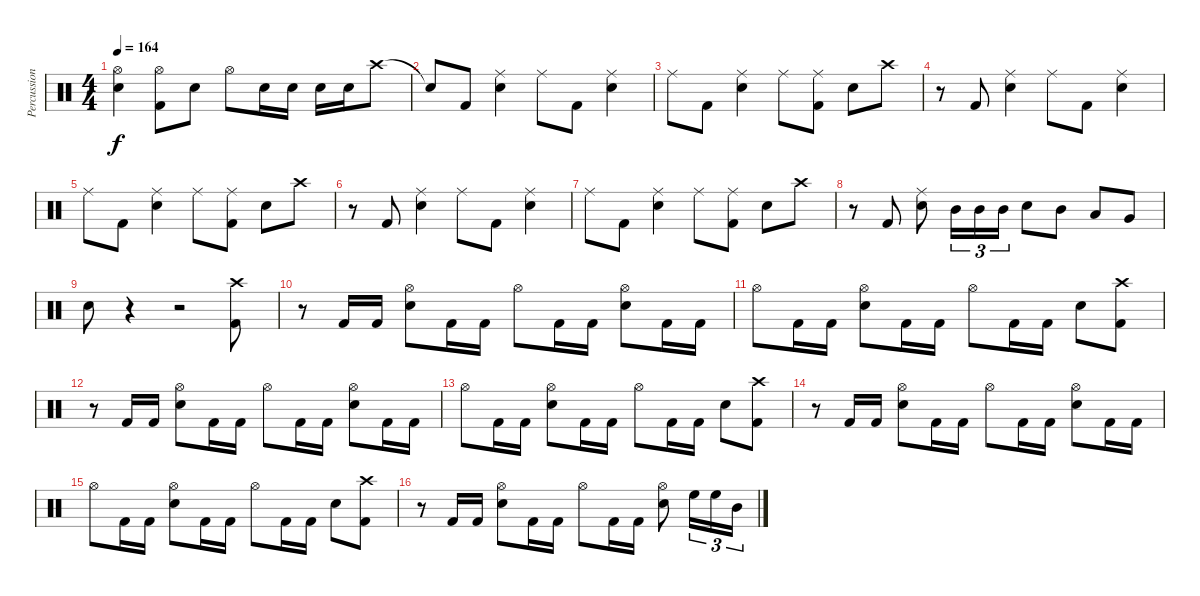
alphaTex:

\track ("Percussion" "Percussion") {instrument percussion}
\staff {score}
\articulation defaults
\ts (4 4)
\tempo 164
\clef neutral
\ks c
("Hi-Hat (open)" "Snare (hit) 2").4{dy f} ("Hi-Hat (open)" "Kick (hit) 2").8 "Snare (hit) 2".8 "Hi-Hat (open)".8 "Snare (hit) 2".16 "Snare (hit) 2".16 "Snare (hit) 2".16 "Snare (hit) 2".16 "Crash high (hit)".8 |
"Snare (hit)"{t}.8 "Kick (hit) 2".8 ("Ride (middle)" "Snare (hit) 2").4 "Ride (middle)".8 "Kick (hit) 2".8 ("Ride (middle)" "Snare (hit) 2").4 |
"Ride (middle)".8 "Kick (hit) 2".8 ("Ride (middle)" "Snare (hit) 2").4 "Ride (middle)".8 ("Ride (middle)" "Kick (hit) 2").8 "Snare (hit) 2".8 "Crash high (hit)".8 |
r.8 "Kick (hit) 2".8 ("Ride (middle)" "Snare (hit) 2").4 "Ride (middle)".8 "Kick (hit) 2".8 ("Ride (middle)" "Snare (hit) 2").4 |
"Ride (middle)".8 "Kick (hit) 2".8 ("Ride (middle)" "Snare (hit) 2").4 "Ride (middle)".8 ("Ride (middle)" "Kick (hit) 2").8 "Snare (hit) 2".8 "Crash high (hit)".8 |
r.8 "Kick (hit) 2".8 ("Ride (middle)" "Snare (hit) 2").4 "Ride (middle)".8 "Kick (hit) 2".8 ("Ride (middle)" "Snare (hit) 2").4 |
"Ride (middle)".8 "Kick (hit) 2".8 ("Ride (middle)" "Snare (hit) 2").4 "Ride (middle)".8 ("Ride (middle)" "Kick (hit) 2").8 "Snare (hit) 2".8 "Crash high (hit)".8 |
r.8 "Kick (hit) 2".8 ("Ride (middle)" "Snare (hit) 2").8 "Mid Tom (hit)".16{tu (3 2)} "Mid Tom (hit)".16{tu (3 2)} "Mid Tom (hit)".16{tu (3 2)} "Snare (hit) 2".8 "Mid Tom (hit)".8 "Low Tom (hit)".8 "Very Low Tom (hit)".8 |
"Snare (hit) 2".8 r.4 r.2 ("Crash high (hit)" "Kick (hit) 2").8 |
r.8 "Kick (hit) 2".16 "Kick (hit) 2".16 ("Hi-Hat (open)" "Snare (hit) 2").8 "Kick (hit) 2".16 "Kick (hit) 2".16 "Hi-Hat (open)".8 "Kick (hit) 2".16 "Kick (hit) 2".16 ("Hi-Hat (open)" "Snare (hit) 2").8 "Kick (hit) 2".16 "Kick (hit) 2".16 |
"Hi-Hat (open)".8 "Kick (hit) 2".16 "Kick (hit) 2".16 ("Hi-Hat (open)" "Snare (hit) 2").8 "Kick (hit) 2".16 "Kick (hit) 2".16 "Hi-Hat (open)".8 "Kick (hit) 2".16 "Kick (hit) 2".16 "Snare (hit) 2".8 ("Crash high (hit)" "Kick (hit) 2").8 |
r.8 "Kick (hit) 2".16 "Kick (hit) 2".16 ("Hi-Hat (open)" "Snare (hit) 2").8 "Kick (hit) 2".16 "Kick (hit) 2".16 "Hi-Hat (open)".8 "Kick (hit) 2".16 "Kick (hit) 2".16 ("Hi-Hat (open)" "Snare (hit) 2").8 "Kick (hit) 2".16 "Kick (hit) 2".16 |
"Hi-Hat (open)".8 "Kick (hit) 2".16 "Kick (hit) 2".16 ("Hi-Hat (open)" "Snare (hit) 2").8 "Kick (hit) 2".16 "Kick (hit) 2".16 "Hi-Hat (open)".8 "Kick (hit) 2".16 "Kick (hit) 2".16 "Snare (hit) 2".8 ("Crash high (hit)" "Kick (hit) 2").8 |
r.8 "Kick (hit) 2".16 "Kick (hit) 2".16 ("Hi-Hat (open)" "Snare (hit) 2").8 "Kick (hit) 2".16 "Kick (hit) 2".16 "Hi-Hat (open)".8 "Kick (hit) 2".16 "Kick (hit) 2".16 ("Hi-Hat (open)" "Snare (hit) 2").8 "Kick (hit) 2".16 "Kick (hit) 2".16 |
"Hi-Hat (open)".8 "Kick (hit) 2".16 "Kick (hit) 2".16 ("Hi-Hat (open)" "Snare (hit) 2").8 "Kick (hit) 2".16 "Kick (hit) 2".16 "Hi-Hat (open)".8 "Kick (hit) 2".16 "Kick (hit) 2".16 "Snare (hit) 2".8 ("Crash high (hit)" "Kick (hit) 2").8 |
r.8 "Kick (hit) 2".16 "Kick (hit) 2".16 ("Hi-Hat (open)" "Snare (hit) 2").8 "Kick (hit) 2".16 "Kick (hit) 2".16 "Hi-Hat (open)".8 "Kick (hit) 2".16 "Kick (hit) 2".16 ("Hi-Hat (open)" "Snare (hit) 2").8 "High Floor Tom (hit)".16{tu (3 2)} "High Floor Tom (hit)".16{tu (3 2)} "Mid Tom (hit)".16{tu (3 2)}
